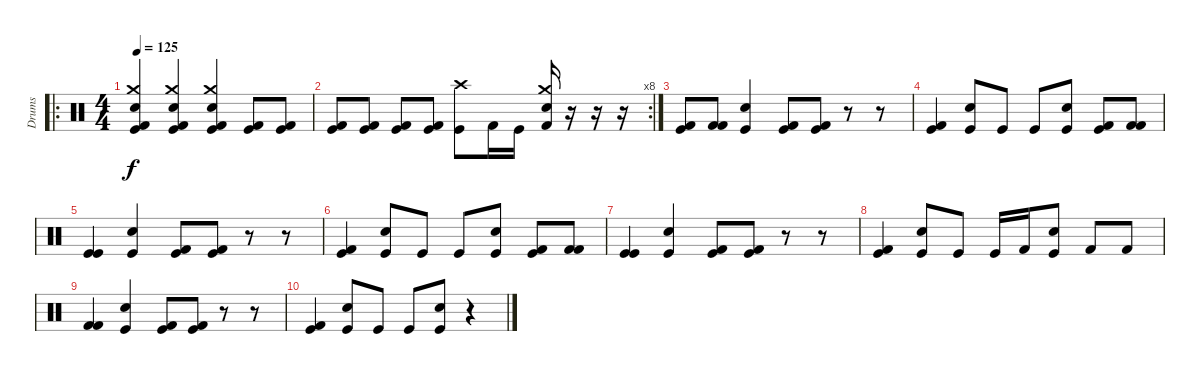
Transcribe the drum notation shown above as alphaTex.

\track ("Drums" "Drums") {instrument percussion}
\staff {score}
\articulation defaults
\ro
\ts (4 4)
\tempo 125
\clef neutral
\ks c
("Kick (hit) 2" "Crash medium (hit)" "Electric Snare (hit)" "Kick (hit)").4{dy f} ("Kick (hit) 2" "Crash medium (hit)" "Electric Snare (hit)" "Kick (hit)").4 ("Kick (hit) 2" "Crash medium (hit)" "Electric Snare (hit)" "Kick (hit)").4 ("Kick (hit) 2" "Kick (hit)").8 ("Kick (hit) 2" "Kick (hit)").8 |
\rc 8
("Kick (hit) 2" "Kick (hit)").8 ("Kick (hit) 2" "Kick (hit)").8 ("Kick (hit) 2" "Kick (hit)").8 ("Kick (hit) 2" "Kick (hit)").8 ("Crash high (hit)" "Kick (hit)").8 "Kick (hit) 2".16 "Kick (hit)".16 ("Crash medium (hit)" "Electric Snare (hit)" "Kick (hit) 2").16 r.16 r.16 r.16 |
("Kick (hit) 2" "Kick (hit)").8 ("Kick (hit) 2" "Kick (hit) 2").8 ("Electric Snare (hit)" "Kick (hit)").4 ("Kick (hit) 2" "Kick (hit)").8 ("Kick (hit) 2" "Kick (hit)").8 r.8 r.8 |
("Kick (hit) 2" "Kick (hit)").4 ("Electric Snare (hit)" "Kick (hit)").8 "Kick (hit)".8 "Kick (hit)".8 ("Electric Snare (hit)" "Kick (hit)").8 ("Kick (hit) 2" "Kick (hit)").8 ("Kick (hit) 2" "Kick (hit) 2").8 |
("Kick (hit)" "Kick (hit)").4 ("Electric Snare (hit)" "Kick (hit)").4 ("Kick (hit) 2" "Kick (hit)").8 ("Kick (hit) 2" "Kick (hit)").8 r.8 r.8 |
("Kick (hit) 2" "Kick (hit)").4 ("Electric Snare (hit)" "Kick (hit)").8 "Kick (hit)".8 "Kick (hit)".8 ("Electric Snare (hit)" "Kick (hit)").8 ("Kick (hit) 2" "Kick (hit)").8 ("Kick (hit) 2" "Kick (hit) 2").8 |
("Kick (hit)" "Kick (hit)").4 ("Electric Snare (hit)" "Kick (hit)").4 ("Kick (hit) 2" "Kick (hit)").8 ("Kick (hit) 2" "Kick (hit)").8 r.8 r.8 |
("Kick (hit) 2" "Kick (hit)").4 ("Electric Snare (hit)" "Kick (hit)").8 "Kick (hit)".8 "Kick (hit)".16 "Kick (hit) 2".16 ("Electric Snare (hit)" "Kick (hit)").8 "Kick (hit) 2".8 "Kick (hit) 2".8 |
("Kick (hit) 2" "Kick (hit) 2").4 ("Electric Snare (hit)" "Kick (hit)").4 ("Kick (hit) 2" "Kick (hit)").8 ("Kick (hit) 2" "Kick (hit)").8 r.8 r.8 |
("Kick (hit) 2" "Kick (hit)").4 ("Electric Snare (hit)" "Kick (hit)").8 "Kick (hit)".8 "Kick (hit)".8 ("Electric Snare (hit)" "Kick (hit)").8 r.4
